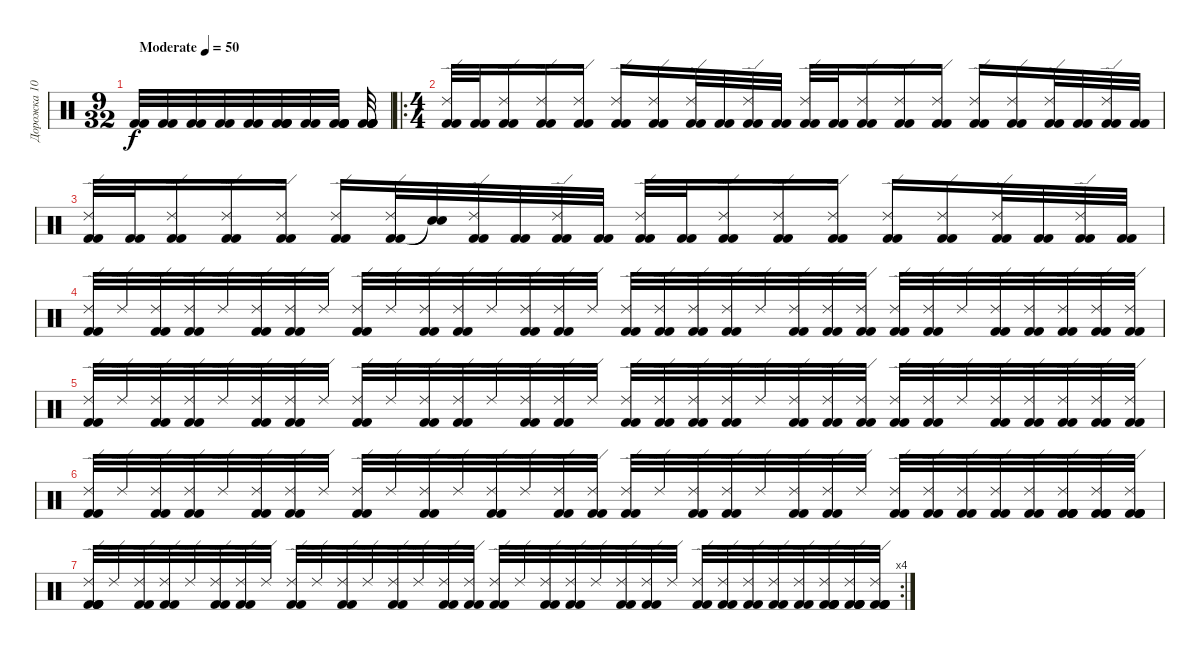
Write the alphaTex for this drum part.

\track ("Дорожка 10" "Дорожка 10") {instrument percussion}
\staff
\articulation defaults
\ts (9 32)
\tempo (50 "Moderate")
\clef neutral
\ks c
("Kick (hit) 2" "Kick (hit) 2").32{dy f} ("Kick (hit) 2" "Kick (hit) 2").32 ("Kick (hit) 2" "Kick (hit) 2").32 ("Kick (hit) 2" "Kick (hit) 2").32 ("Kick (hit) 2" "Kick (hit) 2").32 ("Kick (hit) 2" "Kick (hit) 2" "Kick (hit) 2" "Kick (hit) 2").32 ("Kick (hit) 2" "Kick (hit) 2").32 ("Kick (hit) 2" "Kick (hit) 2" "Kick (hit) 2" "Kick (hit) 2").32 ("Kick (hit) 2" "Kick (hit) 2" "Kick (hit) 2" "Kick (hit) 2").32 |
\ro
\ts (4 4)
("Kick (hit) 2" "Kick (hit) 2" "Ride (edge) 2").32 ("Kick (hit) 2" "Kick (hit) 2").32 ("Kick (hit) 2" "Kick (hit) 2" "Ride (edge) 2").16 ("Kick (hit) 2" "Kick (hit) 2" "Ride (edge) 2").16 ("Kick (hit) 2" "Kick (hit) 2" "Ride (edge) 2").16 ("Kick (hit) 2" "Kick (hit) 2" "Ride (edge) 2").16 ("Kick (hit) 2" "Kick (hit) 2" "Ride (edge) 2").16 ("Kick (hit) 2" "Kick (hit) 2" "Ride (edge) 2").32 ("Kick (hit) 2" "Kick (hit) 2").32 ("Kick (hit) 2" "Kick (hit) 2" "Ride (edge) 2").32 ("Kick (hit) 2" "Kick (hit) 2").32 ("Kick (hit) 2" "Kick (hit) 2" "Ride (edge) 2").32 ("Kick (hit) 2" "Kick (hit) 2").32 ("Kick (hit) 2" "Kick (hit) 2" "Ride (edge) 2").16 ("Kick (hit) 2" "Kick (hit) 2" "Ride (edge) 2").16 ("Kick (hit) 2" "Kick (hit) 2" "Ride (edge) 2").16 ("Kick (hit) 2" "Kick (hit) 2" "Ride (edge) 2").16 ("Kick (hit) 2" "Kick (hit) 2" "Ride (edge) 2").16 ("Kick (hit) 2" "Kick (hit) 2" "Ride (edge) 2").32 ("Kick (hit) 2" "Kick (hit) 2").32 ("Kick (hit) 2" "Kick (hit) 2" "Ride (edge) 2").32 ("Kick (hit) 2" "Kick (hit) 2").32 |
("Kick (hit) 2" "Kick (hit) 2" "Ride (edge) 2").32 ("Kick (hit) 2" "Kick (hit) 2").32 ("Kick (hit) 2" "Kick (hit) 2" "Ride (edge) 2").16 ("Kick (hit) 2" "Kick (hit) 2" "Ride (edge) 2").16 ("Kick (hit) 2" "Kick (hit) 2" "Ride (edge) 2").16 ("Kick (hit) 2" "Kick (hit) 2" "Ride (edge) 2").16 ("Kick (hit) 2" "Kick (hit) 2" "Ride (edge) 2").32 ("Snare (hit)"{t} "Snare (hit)"{t}).32 ("Kick (hit) 2" "Kick (hit) 2" "Ride (edge) 2").32 ("Kick (hit) 2" "Kick (hit) 2").32 ("Kick (hit) 2" "Kick (hit) 2" "Ride (edge) 2").32 ("Kick (hit) 2" "Kick (hit) 2").32 ("Kick (hit) 2" "Kick (hit) 2" "Ride (edge) 2").32 ("Kick (hit) 2" "Kick (hit) 2").32 ("Kick (hit) 2" "Kick (hit) 2" "Ride (edge) 2").16 ("Kick (hit) 2" "Kick (hit) 2" "Ride (edge) 2").16 ("Kick (hit) 2" "Kick (hit) 2" "Ride (edge) 2").16 ("Kick (hit) 2" "Kick (hit) 2" "Ride (edge) 2").16 ("Kick (hit) 2" "Kick (hit) 2" "Ride (edge) 2").16 ("Kick (hit) 2" "Kick (hit) 2" "Ride (edge) 2").32 ("Kick (hit) 2" "Kick (hit) 2").32 ("Kick (hit) 2" "Kick (hit) 2" "Ride (edge) 2").32 ("Kick (hit) 2" "Kick (hit) 2").32 |
("Kick (hit) 2" "Kick (hit) 2" "Ride (edge) 2").32 "Ride (edge) 2".32 ("Kick (hit) 2" "Kick (hit) 2" "Ride (edge) 2").32 ("Kick (hit) 2" "Kick (hit) 2" "Ride (edge) 2").32 "Ride (edge) 2".32 ("Kick (hit) 2" "Kick (hit) 2" "Ride (edge) 2").32 ("Kick (hit) 2" "Kick (hit) 2" "Ride (edge) 2").32 "Ride (edge) 2".32 ("Kick (hit) 2" "Kick (hit) 2" "Ride (edge) 2").32 "Ride (edge) 2".32 ("Kick (hit) 2" "Kick (hit) 2" "Ride (edge) 2").32 ("Kick (hit) 2" "Kick (hit) 2" "Ride (edge) 2").32 "Ride (edge) 2".32 ("Kick (hit) 2" "Kick (hit) 2" "Ride (edge) 2").32 ("Kick (hit) 2" "Kick (hit) 2" "Ride (edge) 2").32 "Ride (edge) 2".32 ("Kick (hit) 2" "Kick (hit) 2" "Ride (edge) 2").32 ("Kick (hit) 2" "Kick (hit) 2" "Ride (edge) 2").32 ("Kick (hit) 2" "Kick (hit) 2" "Ride (edge) 2").32 ("Kick (hit) 2" "Kick (hit) 2" "Ride (edge) 2").32 "Ride (edge) 2".32 ("Kick (hit) 2" "Kick (hit) 2" "Ride (edge) 2").32 ("Kick (hit) 2" "Kick (hit) 2" "Ride (edge) 2").32 ("Kick (hit) 2" "Kick (hit) 2" "Ride (edge) 2").32 ("Kick (hit) 2" "Kick (hit) 2" "Ride (edge) 2").32 ("Kick (hit) 2" "Kick (hit) 2" "Ride (edge) 2").32 "Ride (edge) 2".32 ("Kick (hit) 2" "Kick (hit) 2" "Ride (edge) 2").32 ("Kick (hit) 2" "Kick (hit) 2" "Ride (edge) 2").32 ("Kick (hit) 2" "Kick (hit) 2" "Ride (edge) 2").32 ("Kick (hit) 2" "Kick (hit) 2" "Ride (edge) 2").32 ("Kick (hit) 2" "Kick (hit) 2" "Ride (edge) 2").32 |
("Kick (hit) 2" "Kick (hit) 2" "Ride (edge) 2").32 "Ride (edge) 2".32 ("Kick (hit) 2" "Kick (hit) 2" "Ride (edge) 2").32 ("Kick (hit) 2" "Kick (hit) 2" "Ride (edge) 2").32 "Ride (edge) 2".32 ("Kick (hit) 2" "Kick (hit) 2" "Ride (edge) 2").32 ("Kick (hit) 2" "Kick (hit) 2" "Ride (edge) 2").32 "Ride (edge) 2".32 ("Kick (hit) 2" "Kick (hit) 2" "Ride (edge) 2").32 "Ride (edge) 2".32 ("Kick (hit) 2" "Kick (hit) 2" "Ride (edge) 2").32 ("Kick (hit) 2" "Kick (hit) 2" "Ride (edge) 2").32 "Ride (edge) 2".32 ("Kick (hit) 2" "Kick (hit) 2" "Ride (edge) 2").32 ("Kick (hit) 2" "Kick (hit) 2" "Ride (edge) 2").32 "Ride (edge) 2".32 ("Kick (hit) 2" "Kick (hit) 2" "Ride (edge) 2").32 ("Kick (hit) 2" "Kick (hit) 2" "Ride (edge) 2").32 ("Kick (hit) 2" "Kick (hit) 2" "Ride (edge) 2").32 ("Kick (hit) 2" "Kick (hit) 2" "Ride (edge) 2").32 "Ride (edge) 2".32 ("Kick (hit) 2" "Kick (hit) 2" "Ride (edge) 2").32 ("Kick (hit) 2" "Kick (hit) 2" "Ride (edge) 2").32 ("Kick (hit) 2" "Kick (hit) 2" "Ride (edge) 2").32 ("Kick (hit) 2" "Kick (hit) 2" "Ride (edge) 2").32 ("Kick (hit) 2" "Kick (hit) 2" "Ride (edge) 2").32 "Ride (edge) 2".32 ("Kick (hit) 2" "Kick (hit) 2" "Ride (edge) 2").32 ("Kick (hit) 2" "Kick (hit) 2" "Ride (edge) 2").32 ("Kick (hit) 2" "Kick (hit) 2" "Ride (edge) 2").32 ("Kick (hit) 2" "Kick (hit) 2" "Ride (edge) 2").32 ("Kick (hit) 2" "Kick (hit) 2" "Ride (edge) 2").32 |
("Kick (hit) 2" "Kick (hit) 2" "Ride (edge) 2").32 "Ride (edge) 2".32 ("Kick (hit) 2" "Kick (hit) 2" "Ride (edge) 2").32 ("Kick (hit) 2" "Kick (hit) 2" "Ride (edge) 2").32 "Ride (edge) 2".32 ("Kick (hit) 2" "Kick (hit) 2" "Ride (edge) 2").32 ("Kick (hit) 2" "Kick (hit) 2" "Ride (edge) 2").32 "Ride (edge) 2".32 ("Kick (hit) 2" "Kick (hit) 2" "Ride (edge) 2").32 "Ride (edge) 2".32 ("Kick (hit) 2" "Kick (hit) 2" "Ride (edge) 2").32 "Ride (edge) 2".32 ("Kick (hit) 2" "Kick (hit) 2" "Ride (edge) 2").32 "Ride (edge) 2".32 ("Kick (hit) 2" "Kick (hit) 2" "Ride (edge) 2").32 ("Kick (hit) 2" "Kick (hit) 2" "Ride (edge) 2").32 ("Kick (hit) 2" "Kick (hit) 2" "Ride (edge) 2").32 "Ride (edge) 2".32 ("Kick (hit) 2" "Kick (hit) 2" "Ride (edge) 2").32 ("Kick (hit) 2" "Kick (hit) 2" "Ride (edge) 2").32 "Ride (edge) 2".32 ("Kick (hit) 2" "Kick (hit) 2" "Ride (edge) 2").32 ("Kick (hit) 2" "Kick (hit) 2" "Ride (edge) 2").32 "Ride (edge) 2".32 ("Kick (hit) 2" "Kick (hit) 2" "Ride (edge) 2").32 ("Kick (hit) 2" "Kick (hit) 2" "Ride (edge) 2").32 ("Kick (hit) 2" "Kick (hit) 2" "Ride (edge) 2").32 ("Kick (hit) 2" "Kick (hit) 2" "Ride (edge) 2").32 ("Kick (hit) 2" "Kick (hit) 2" "Ride (edge) 2").32 ("Kick (hit) 2" "Kick (hit) 2" "Kick (hit) 2" "Kick (hit) 2" "Ride (edge) 2").32 ("Kick (hit) 2" "Kick (hit) 2" "Kick (hit) 2" "Kick (hit) 2" "Ride (edge) 2").32 ("Kick (hit) 2" "Kick (hit) 2" "Kick (hit) 2" "Kick (hit) 2" "Ride (edge) 2").32 |
\rc 4
("Kick (hit) 2" "Kick (hit) 2" "Kick (hit) 2" "Kick (hit) 2" "Ride (edge) 2").32 "Ride (edge) 2".32 ("Kick (hit) 2" "Kick (hit) 2" "Ride (edge) 2").32 ("Kick (hit) 2" "Kick (hit) 2" "Ride (edge) 2").32 "Ride (edge) 2".32 ("Kick (hit) 2" "Kick (hit) 2" "Ride (edge) 2").32 ("Kick (hit) 2" "Kick (hit) 2" "Ride (edge) 2").32 "Ride (edge) 2".32 ("Kick (hit) 2" "Kick (hit) 2" "Ride (edge) 2").32 "Ride (edge) 2".32 ("Kick (hit) 2" "Kick (hit) 2" "Ride (edge) 2").32 "Ride (edge) 2".32 ("Kick (hit) 2" "Kick (hit) 2" "Ride (edge) 2").32 "Ride (edge) 2".32 ("Kick (hit) 2" "Kick (hit) 2" "Ride (edge) 2").32 ("Kick (hit) 2" "Kick (hit) 2" "Ride (edge) 2").32 ("Kick (hit) 2" "Kick (hit) 2" "Ride (edge) 2").32 "Ride (edge) 2".32 ("Kick (hit) 2" "Kick (hit) 2" "Ride (edge) 2").32 ("Kick (hit) 2" "Kick (hit) 2" "Ride (edge) 2").32 "Ride (edge) 2".32 ("Kick (hit) 2" "Kick (hit) 2" "Ride (edge) 2").32 ("Kick (hit) 2" "Kick (hit) 2" "Ride (edge) 2").32 "Ride (edge) 2".32 ("Kick (hit) 2" "Kick (hit) 2" "Ride (edge) 2").32 ("Kick (hit) 2" "Kick (hit) 2" "Ride (edge) 2").32 ("Kick (hit) 2" "Kick (hit) 2" "Ride (edge) 2").32 ("Kick (hit) 2" "Kick (hit) 2" "Ride (edge) 2").32 ("Kick (hit) 2" "Kick (hit) 2" "Ride (edge) 2").32 ("Kick (hit) 2" "Kick (hit) 2" "Kick (hit) 2" "Kick (hit) 2" "Ride (edge) 2").32 ("Kick (hit) 2" "Kick (hit) 2" "Kick (hit) 2" "Kick (hit) 2" "Ride (edge) 2").32 ("Kick (hit) 2" "Kick (hit) 2" "Kick (hit) 2" "Kick (hit) 2" "Ride (edge) 2").32
